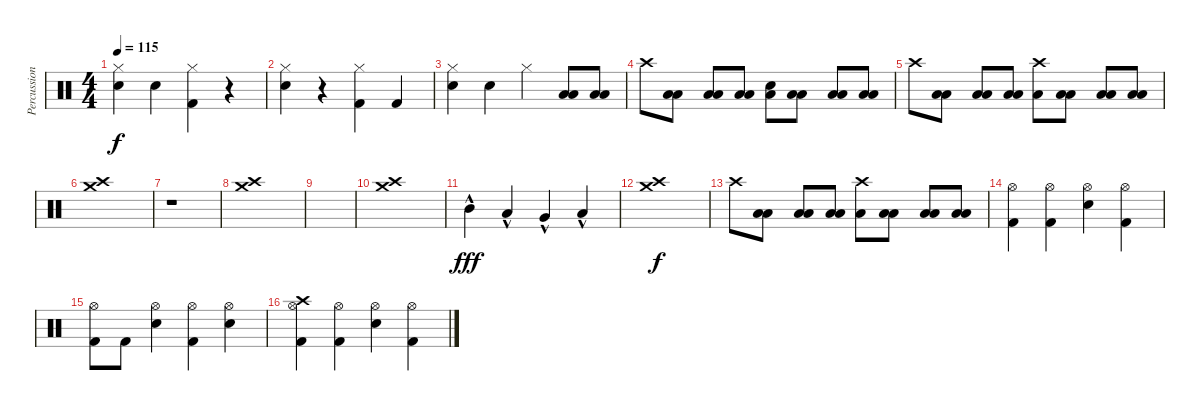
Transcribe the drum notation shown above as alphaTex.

\track ("Percussion" "Percussion") {instrument percussion}
\staff {score}
\articulation defaults
\ts (4 4)
\tempo 115
\clef neutral
\ks c
("Hi-Hat (closed)" "Snare (hit) 2").4{dy f} "Snare (hit) 2".4 ("Hi-Hat (closed)" "Kick (hit) 2").4 r.4 |
("Hi-Hat (closed)" "Snare (hit) 2").4 r.4 ("Hi-Hat (closed)" "Kick (hit) 2").4 "Kick (hit) 2".4 |
("Hi-Hat (closed)" "Snare (hit) 2").4 "Snare (hit) 2".4 "Hi-Hat (closed)".4 ("Low Tom (hit)" "Low Floor Tom (hit)").8 ("Low Tom (hit)" "Low Floor Tom (hit)").8 |
"Crash high (hit)".8 ("Low Tom (hit)" "Low Floor Tom (hit)").8 ("Low Tom (hit)" "Low Floor Tom (hit)").8 ("Low Tom (hit)" "Low Floor Tom (hit)").8 ("Low Floor Tom (hit)" "Snare (hit) 2").8 ("Low Tom (hit)" "Low Floor Tom (hit)").8 ("Low Tom (hit)" "Low Floor Tom (hit)").8 ("Low Tom (hit)" "Low Floor Tom (hit)").8 |
"Crash high (hit)".8 ("Low Tom (hit)" "Low Floor Tom (hit)").8 ("Low Tom (hit)" "Low Floor Tom (hit)").8 ("Low Tom (hit)" "Low Floor Tom (hit)").8 ("Crash high (hit)" "Low Floor Tom (hit)").8 ("Low Tom (hit)" "Low Floor Tom (hit)").8 ("Low Tom (hit)" "Low Floor Tom (hit)").8 ("Low Tom (hit)" "Low Floor Tom (hit)").8 |
("Crash high (hit)" "Crash medium (hit)").1 |
r.1 |
("Crash high (hit)" "Crash medium (hit)").1 |
|
("Crash high (hit)" "Crash medium (hit)").1 |
"Mid Tom (hit)"{hac}.4{dy fff} "Low Tom (hit)"{hac}.4 "Very Low Tom (hit)"{hac}.4 "Low Floor Tom (hit)"{hac}.4 |
("Crash high (hit)" "Crash medium (hit)").1{dy f} |
"Crash high (hit)".8 ("Low Tom (hit)" "Low Floor Tom (hit)").8 ("Low Tom (hit)" "Low Floor Tom (hit)").8 ("Low Tom (hit)" "Low Floor Tom (hit)").8 ("Crash high (hit)" "Low Floor Tom (hit)").8 ("Low Tom (hit)" "Low Floor Tom (hit)").8 ("Low Tom (hit)" "Low Floor Tom (hit)").8 ("Low Tom (hit)" "Low Floor Tom (hit)").8 |
("Hi-Hat (open)" "Kick (hit) 2").4 ("Hi-Hat (open)" "Kick (hit) 2").4 ("Hi-Hat (open)" "Snare (hit) 2").4 ("Hi-Hat (open)" "Kick (hit) 2").4 |
("Hi-Hat (open)" "Kick (hit) 2").8 "Kick (hit) 2".8 ("Hi-Hat (open)" "Snare (hit) 2").4 ("Hi-Hat (open)" "Kick (hit) 2").4 ("Hi-Hat (open)" "Snare (hit) 2").4 |
("Crash high (hit)" "Hi-Hat (open)" "Kick (hit) 2").4 ("Hi-Hat (open)" "Kick (hit) 2").4 ("Hi-Hat (open)" "Snare (hit) 2").4 ("Hi-Hat (open)" "Kick (hit) 2").4
